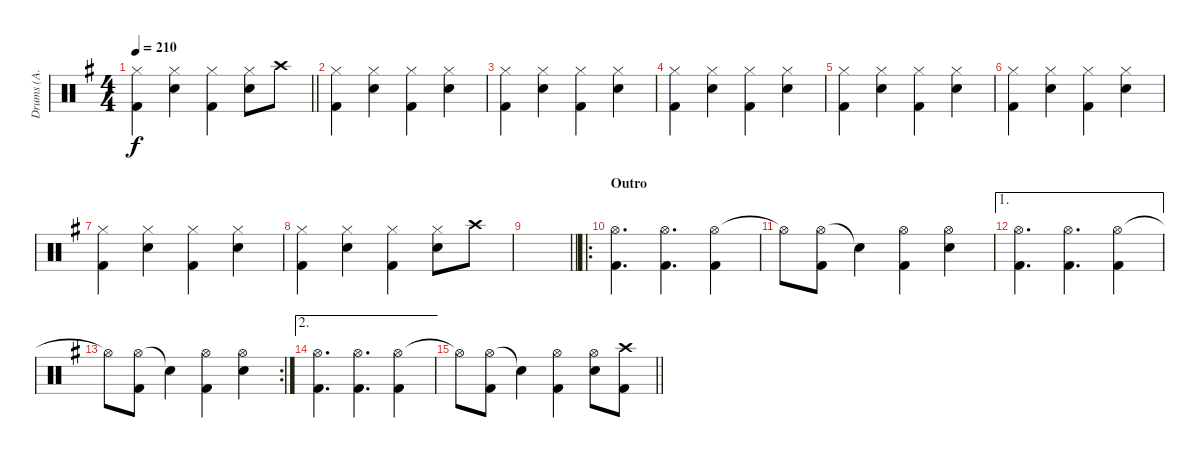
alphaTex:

\track ("Drums (А. Манякин)" "Drums (А. ") {instrument percussion}
\staff {score}
\articulation defaults
\ts (4 4)
\tempo 210
\clef neutral
\barLineRight lightlight
\ks g
("Hi-Hat (closed)" "Kick (hit) 2").4{dy f} ("Hi-Hat (closed)" "Snare (hit) 2").4 ("Hi-Hat (closed)" "Kick (hit) 2").4 ("Hi-Hat (closed)" "Snare (hit) 2").8 "Crash high (hit)".8 |
("Hi-Hat (closed)" "Kick (hit) 2").4 ("Hi-Hat (closed)" "Snare (hit) 2").4 ("Hi-Hat (closed)" "Kick (hit) 2").4 ("Hi-Hat (closed)" "Snare (hit) 2").4 |
("Hi-Hat (closed)" "Kick (hit) 2").4 ("Hi-Hat (closed)" "Snare (hit) 2").4 ("Hi-Hat (closed)" "Kick (hit) 2").4 ("Hi-Hat (closed)" "Snare (hit) 2").4 |
("Hi-Hat (closed)" "Kick (hit) 2").4 ("Hi-Hat (closed)" "Snare (hit) 2").4 ("Hi-Hat (closed)" "Kick (hit) 2").4 ("Hi-Hat (closed)" "Snare (hit) 2").4 |
("Hi-Hat (closed)" "Kick (hit) 2").4 ("Hi-Hat (closed)" "Snare (hit) 2").4 ("Hi-Hat (closed)" "Kick (hit) 2").4 ("Hi-Hat (closed)" "Snare (hit) 2").4 |
("Hi-Hat (closed)" "Kick (hit) 2").4 ("Hi-Hat (closed)" "Snare (hit) 2").4 ("Hi-Hat (closed)" "Kick (hit) 2").4 ("Hi-Hat (closed)" "Snare (hit) 2").4 |
("Hi-Hat (closed)" "Kick (hit) 2").4 ("Hi-Hat (closed)" "Snare (hit) 2").4 ("Hi-Hat (closed)" "Kick (hit) 2").4 ("Hi-Hat (closed)" "Snare (hit) 2").4 |
("Hi-Hat (closed)" "Kick (hit) 2").4 ("Hi-Hat (closed)" "Snare (hit) 2").4 ("Hi-Hat (closed)" "Kick (hit) 2").4 ("Hi-Hat (closed)" "Snare (hit) 2").8 "Crash high (hit)".8 |
\barLineRight lightlight
|
\ro
\section ("" "Outro")
("Hi-Hat (open)" "Kick (hit) 2").4{d} ("Hi-Hat (open)" "Kick (hit) 2").4{d} ("Hi-Hat (open)" "Kick (hit) 2").4 |
"Hi-Hat (open)"{t}.8 ("Hi-Hat (open)" "Kick (hit) 2").8 "Snare (hit)"{t}.4 ("Hi-Hat (open)" "Kick (hit) 2").4 ("Hi-Hat (open)" "Snare (hit) 2").4 |
\ae 1
("Hi-Hat (open)" "Kick (hit) 2").4{d} ("Hi-Hat (open)" "Kick (hit) 2").4{d} ("Hi-Hat (open)" "Kick (hit) 2").4 |
\rc 2 "Hi-Hat (open)"{t}.8
("Hi-Hat (open)" "Kick (hit) 2").8 "Snare (hit)"{t}.4 ("Hi-Hat (open)" "Kick (hit) 2").4 ("Hi-Hat (open)" "Snare (hit) 2").4 |
\ae 2
("Hi-Hat (open)" "Kick (hit) 2").4{d} ("Hi-Hat (open)" "Kick (hit) 2").4{d} ("Hi-Hat (open)" "Kick (hit) 2").4 |
\barLineRight lightlight "Hi-Hat (open)"{t}.8
("Hi-Hat (open)" "Kick (hit) 2").8 "Snare (hit)"{t}.4 ("Hi-Hat (open)" "Kick (hit) 2").4 ("Hi-Hat (open)" "Snare (hit) 2").8 ("Crash high (hit)" "Kick (hit) 2").8
